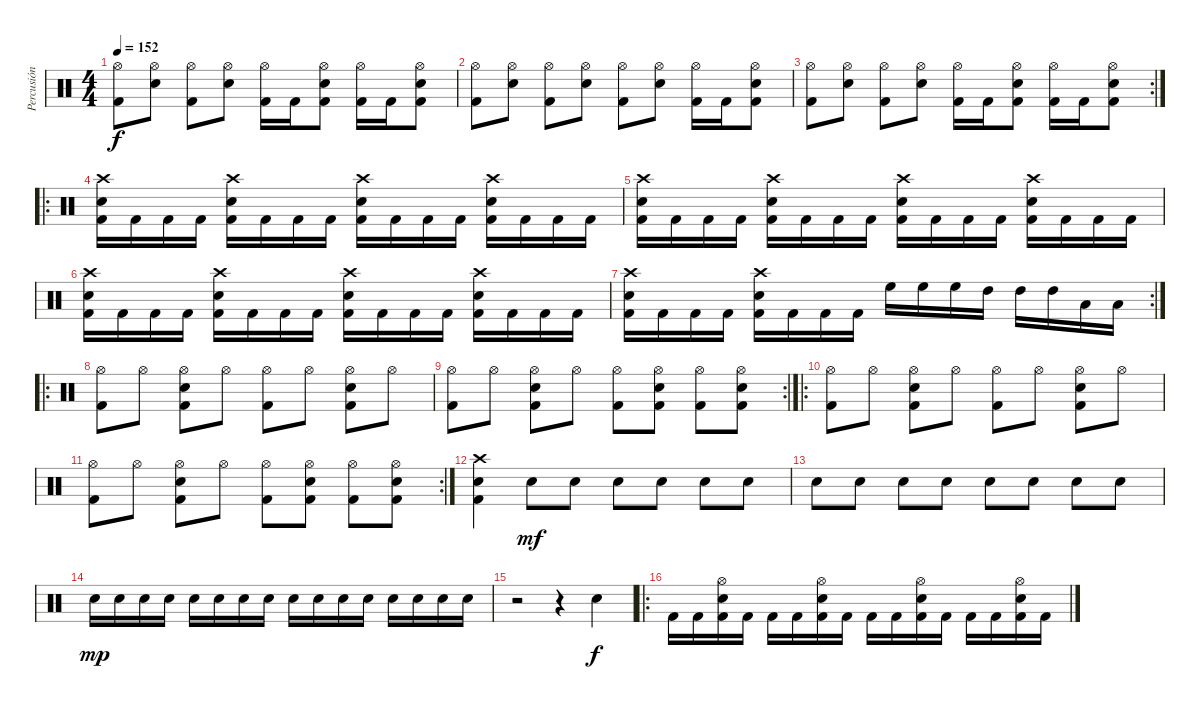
\track ("Percusión" "Percusión") {instrument percussion}
\staff {score}
\articulation defaults
\ts (4 4)
\tempo 152
\clef neutral
\ks c
("Hi-Hat (open)" "Kick (hit) 2").8{dy f} ("Hi-Hat (open)" "Snare (hit) 2").8 ("Hi-Hat (open)" "Kick (hit) 2").8 ("Hi-Hat (open)" "Snare (hit) 2").8 ("Hi-Hat (open)" "Kick (hit) 2").16 "Kick (hit) 2".16 ("Hi-Hat (open)" "Snare (hit) 2" "Kick (hit) 2").8 ("Hi-Hat (open)" "Kick (hit) 2").16 "Kick (hit) 2".16 ("Hi-Hat (open)" "Snare (hit) 2" "Kick (hit) 2").8 |
("Hi-Hat (open)" "Kick (hit) 2").8 ("Hi-Hat (open)" "Snare (hit) 2").8 ("Hi-Hat (open)" "Kick (hit) 2").8 ("Hi-Hat (open)" "Snare (hit) 2").8 ("Hi-Hat (open)" "Kick (hit) 2").8 ("Hi-Hat (open)" "Snare (hit) 2").8 ("Hi-Hat (open)" "Kick (hit) 2").16 "Kick (hit) 2".16 ("Hi-Hat (open)" "Snare (hit) 2" "Kick (hit) 2").8 |
\rc 2
("Hi-Hat (open)" "Kick (hit) 2").8 ("Hi-Hat (open)" "Snare (hit) 2").8 ("Hi-Hat (open)" "Kick (hit) 2").8 ("Hi-Hat (open)" "Snare (hit) 2").8 ("Hi-Hat (open)" "Kick (hit) 2").16 "Kick (hit) 2".16 ("Hi-Hat (open)" "Snare (hit) 2" "Kick (hit) 2").8 ("Hi-Hat (open)" "Kick (hit) 2").16 "Kick (hit) 2".16 ("Hi-Hat (open)" "Snare (hit) 2" "Kick (hit) 2").8 |
\ro
("Crash high (hit)" "Snare (hit) 2" "Kick (hit) 2").16 "Kick (hit) 2".16 "Kick (hit) 2".16 "Kick (hit) 2".16 ("Crash high (hit)" "Snare (hit) 2" "Kick (hit) 2").16 "Kick (hit) 2".16 "Kick (hit) 2".16 "Kick (hit) 2".16 ("Crash high (hit)" "Snare (hit) 2" "Kick (hit) 2").16 "Kick (hit) 2".16 "Kick (hit) 2".16 "Kick (hit) 2".16 ("Crash high (hit)" "Snare (hit) 2" "Kick (hit) 2").16 "Kick (hit) 2".16 "Kick (hit) 2".16 "Kick (hit) 2".16 |
("Crash high (hit)" "Snare (hit) 2" "Kick (hit) 2").16 "Kick (hit) 2".16 "Kick (hit) 2".16 "Kick (hit) 2".16 ("Crash high (hit)" "Snare (hit) 2" "Kick (hit) 2").16 "Kick (hit) 2".16 "Kick (hit) 2".16 "Kick (hit) 2".16 ("Crash high (hit)" "Snare (hit) 2" "Kick (hit) 2").16 "Kick (hit) 2".16 "Kick (hit) 2".16 "Kick (hit) 2".16 ("Crash high (hit)" "Snare (hit) 2" "Kick (hit) 2").16 "Kick (hit) 2".16 "Kick (hit) 2".16 "Kick (hit) 2".16 |
("Crash high (hit)" "Snare (hit) 2" "Kick (hit) 2").16 "Kick (hit) 2".16 "Kick (hit) 2".16 "Kick (hit) 2".16 ("Crash high (hit)" "Snare (hit) 2" "Kick (hit) 2").16 "Kick (hit) 2".16 "Kick (hit) 2".16 "Kick (hit) 2".16 ("Crash high (hit)" "Snare (hit) 2" "Kick (hit) 2").16 "Kick (hit) 2".16 "Kick (hit) 2".16 "Kick (hit) 2".16 ("Crash high (hit)" "Snare (hit) 2" "Kick (hit) 2").16 "Kick (hit) 2".16 "Kick (hit) 2".16 "Kick (hit) 2".16 |
\rc 2
("Crash high (hit)" "Snare (hit) 2" "Kick (hit) 2").16 "Kick (hit) 2".16 "Kick (hit) 2".16 "Kick (hit) 2".16 ("Crash high (hit)" "Snare (hit) 2" "Kick (hit) 2").16 "Kick (hit) 2".16 "Kick (hit) 2".16 "Kick (hit) 2".16 "High Floor Tom (hit)".16 "High Floor Tom (hit)".16 "High Floor Tom (hit)".16 "High Tom (hit)".16 "High Tom (hit)".16 "High Tom (hit)".16 "Low Floor Tom (hit)".16 "Low Floor Tom (hit)".16 |
\ro
("Hi-Hat (open)" "Kick (hit) 2").8 "Hi-Hat (open)".8 ("Hi-Hat (open)" "Snare (hit) 2" "Kick (hit) 2").8 "Hi-Hat (open)".8 ("Hi-Hat (open)" "Kick (hit) 2").8 "Hi-Hat (open)".8 ("Hi-Hat (open)" "Snare (hit) 2" "Kick (hit) 2").8 "Hi-Hat (open)".8 |
\rc 2
("Hi-Hat (open)" "Kick (hit) 2").8 "Hi-Hat (open)".8 ("Hi-Hat (open)" "Snare (hit) 2" "Kick (hit) 2").8 "Hi-Hat (open)".8 ("Hi-Hat (open)" "Kick (hit) 2").8 ("Hi-Hat (open)" "Snare (hit) 2" "Kick (hit) 2").8 ("Hi-Hat (open)" "Kick (hit) 2").8 ("Hi-Hat (open)" "Snare (hit) 2" "Kick (hit) 2").8 |
\ro
("Hi-Hat (open)" "Kick (hit) 2").8 "Hi-Hat (open)".8 ("Hi-Hat (open)" "Snare (hit) 2" "Kick (hit) 2").8 "Hi-Hat (open)".8 ("Hi-Hat (open)" "Kick (hit) 2").8 "Hi-Hat (open)".8 ("Hi-Hat (open)" "Snare (hit) 2" "Kick (hit) 2").8 "Hi-Hat (open)".8 |
\rc 2
("Hi-Hat (open)" "Kick (hit) 2").8 "Hi-Hat (open)".8 ("Hi-Hat (open)" "Snare (hit) 2" "Kick (hit) 2").8 "Hi-Hat (open)".8 ("Hi-Hat (open)" "Kick (hit) 2").8 ("Hi-Hat (open)" "Snare (hit) 2" "Kick (hit) 2").8 ("Hi-Hat (open)" "Kick (hit) 2").8 ("Hi-Hat (open)" "Snare (hit) 2" "Kick (hit) 2").8 |
("Crash high (hit)" "Snare (hit) 2" "Kick (hit) 2").4 "Snare (hit) 2".8{dy mf} "Snare (hit) 2".8 "Snare (hit) 2".8 "Snare (hit) 2".8 "Snare (hit) 2".8 "Snare (hit) 2".8 |
"Snare (hit) 2".8 "Snare (hit) 2".8 "Snare (hit) 2".8 "Snare (hit) 2".8 "Snare (hit) 2".8 "Snare (hit) 2".8 "Snare (hit) 2".8 "Snare (hit) 2".8 |
"Snare (hit) 2".16{dy mp} "Snare (hit) 2".16 "Snare (hit) 2".16 "Snare (hit) 2".16 "Snare (hit) 2".16 "Snare (hit) 2".16 "Snare (hit) 2".16 "Snare (hit) 2".16 "Snare (hit) 2".16 "Snare (hit) 2".16 "Snare (hit) 2".16 "Snare (hit) 2".16 "Snare (hit) 2".16 "Snare (hit) 2".16 "Snare (hit) 2".16 "Snare (hit) 2".16 |
r.2 r.4 "Snare (hit) 2".4{dy f} |
\ro "Kick (hit) 2".16 "Kick (hit) 2".16
("Hi-Hat (open)" "Snare (hit) 2" "Kick (hit) 2").16 "Kick (hit) 2".16 "Kick (hit) 2".16 "Kick (hit) 2".16 ("Hi-Hat (open)" "Snare (hit) 2" "Kick (hit) 2").16 "Kick (hit) 2".16 "Kick (hit) 2".16 "Kick (hit) 2".16 ("Hi-Hat (open)" "Snare (hit) 2" "Kick (hit) 2").16 "Kick (hit) 2".16 "Kick (hit) 2".16 "Kick (hit) 2".16 ("Hi-Hat (open)" "Snare (hit) 2" "Kick (hit) 2").16 "Kick (hit) 2".16
